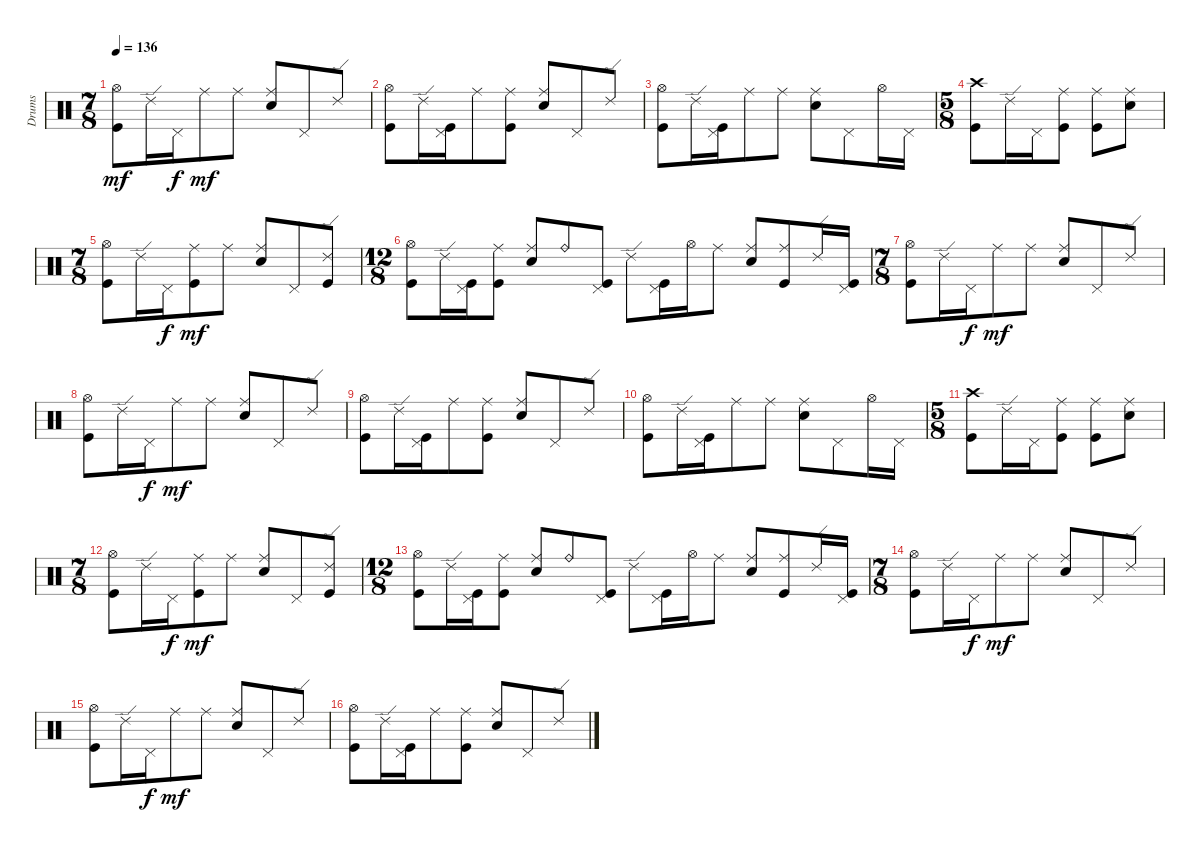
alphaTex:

\track ("Drums" "Drums") {instrument percussion}
\staff {score}
\articulation defaults
\ts (7 8)
\tempo 136
\clef neutral
\ks c
("Hi-Hat (open)" "Kick (hit)").8{dy mf} "Ride (edge) 2".16 "Pedal Hi-Hat (hit)".16{dy f} "Ride (middle)".8{dy mf} "Ride (middle)".8 ("Ride (middle)" "Electric Snare (hit)").8 "Pedal Hi-Hat (hit)".8 "Ride (edge) 2".8 |
("Hi-Hat (open)" "Kick (hit)").8 "Ride (edge) 2".16 ("Pedal Hi-Hat (hit)" "Kick (hit)").16 "Ride (middle)".8 ("Ride (middle)" "Kick (hit)").8 ("Ride (middle)" "Electric Snare (hit)").8 "Pedal Hi-Hat (hit)".8 "Ride (edge) 2".8 |
("Hi-Hat (open)" "Kick (hit)").8 "Ride (edge) 2".16 ("Pedal Hi-Hat (hit)" "Kick (hit)").16 "Ride (middle)".8 "Ride (middle)".8 ("Ride (middle)" "Electric Snare (hit)").8 "Pedal Hi-Hat (hit)".8 "Hi-Hat (open)".16 "Pedal Hi-Hat (hit)".16 |
\ts (5 8)
("Crash high (hit)" "Kick (hit)").8 "Ride (edge) 2".16 "Pedal Hi-Hat (hit)".16 ("Ride (middle)" "Kick (hit)").8 ("Ride (middle)" "Kick (hit)").8 ("Ride (middle)" "Electric Snare (hit)").8 |
\ts (7 8)
("Hi-Hat (open)" "Kick (hit)").8 "Ride (edge) 2".16 "Pedal Hi-Hat (hit)".16{dy f} ("Ride (middle)" "Kick (hit)").8{dy mf} "Ride (middle)".8 ("Ride (middle)" "Electric Snare (hit)").8 "Pedal Hi-Hat (hit)".8 ("Ride (edge) 2" "Kick (hit)").8 |
\ts (12 8)
("Hi-Hat (open)" "Kick (hit)").8 "Ride (edge) 2".16 ("Pedal Hi-Hat (hit)" "Kick (hit)").16 ("Ride (middle)" "Kick (hit)").8 ("Ride (middle)" "Electric Snare (hit)").8 "Ride (bell)".8 ("Pedal Hi-Hat (hit)" "Kick (hit)").8 "Ride (edge) 2".8 ("Pedal Hi-Hat (hit)" "Kick (hit)").16 "Hi-Hat (open)".16 "Ride (middle)".8 ("Ride (middle)" "Electric Snare (hit)").8 ("Ride (middle)" "Kick (hit)").8 "Ride (edge) 2".16 ("Pedal Hi-Hat (hit)" "Kick (hit)").16 |
\ts (7 8)
("Hi-Hat (open)" "Kick (hit)").8 "Ride (edge) 2".16 "Pedal Hi-Hat (hit)".16{dy f} "Ride (middle)".8{dy mf} "Ride (middle)".8 ("Ride (middle)" "Electric Snare (hit)").8 "Pedal Hi-Hat (hit)".8 "Ride (edge) 2".8 |
("Hi-Hat (open)" "Kick (hit)").8 "Ride (edge) 2".16 "Pedal Hi-Hat (hit)".16{dy f} "Ride (middle)".8{dy mf} "Ride (middle)".8 ("Ride (middle)" "Electric Snare (hit)").8 "Pedal Hi-Hat (hit)".8 "Ride (edge) 2".8 |
("Hi-Hat (open)" "Kick (hit)").8 "Ride (edge) 2".16 ("Pedal Hi-Hat (hit)" "Kick (hit)").16 "Ride (middle)".8 ("Ride (middle)" "Kick (hit)").8 ("Ride (middle)" "Electric Snare (hit)").8 "Pedal Hi-Hat (hit)".8 "Ride (edge) 2".8 |
("Hi-Hat (open)" "Kick (hit)").8 "Ride (edge) 2".16 ("Pedal Hi-Hat (hit)" "Kick (hit)").16 "Ride (middle)".8 "Ride (middle)".8 ("Ride (middle)" "Electric Snare (hit)").8 "Pedal Hi-Hat (hit)".8 "Hi-Hat (open)".16 "Pedal Hi-Hat (hit)".16 |
\ts (5 8)
("Crash high (hit)" "Kick (hit)").8 "Ride (edge) 2".16 "Pedal Hi-Hat (hit)".16 ("Ride (middle)" "Kick (hit)").8 ("Ride (middle)" "Kick (hit)").8 ("Ride (middle)" "Electric Snare (hit)").8 |
\ts (7 8)
("Hi-Hat (open)" "Kick (hit)").8 "Ride (edge) 2".16 "Pedal Hi-Hat (hit)".16{dy f} ("Ride (middle)" "Kick (hit)").8{dy mf} "Ride (middle)".8 ("Ride (middle)" "Electric Snare (hit)").8 "Pedal Hi-Hat (hit)".8 ("Ride (edge) 2" "Kick (hit)").8 |
\ts (12 8)
("Hi-Hat (open)" "Kick (hit)").8 "Ride (edge) 2".16 ("Pedal Hi-Hat (hit)" "Kick (hit)").16 ("Ride (middle)" "Kick (hit)").8 ("Ride (middle)" "Electric Snare (hit)").8 "Ride (bell)".8 ("Pedal Hi-Hat (hit)" "Kick (hit)").8 "Ride (edge) 2".8 ("Pedal Hi-Hat (hit)" "Kick (hit)").16 "Hi-Hat (open)".16 "Ride (middle)".8 ("Ride (middle)" "Electric Snare (hit)").8 ("Ride (middle)" "Kick (hit)").8 "Ride (edge) 2".16 ("Pedal Hi-Hat (hit)" "Kick (hit)").16 |
\ts (7 8)
("Hi-Hat (open)" "Kick (hit)").8 "Ride (edge) 2".16 "Pedal Hi-Hat (hit)".16{dy f} "Ride (middle)".8{dy mf} "Ride (middle)".8 ("Ride (middle)" "Electric Snare (hit)").8 "Pedal Hi-Hat (hit)".8 "Ride (edge) 2".8 |
("Hi-Hat (open)" "Kick (hit)").8 "Ride (edge) 2".16 "Pedal Hi-Hat (hit)".16{dy f} "Ride (middle)".8{dy mf} "Ride (middle)".8 ("Ride (middle)" "Electric Snare (hit)").8 "Pedal Hi-Hat (hit)".8 "Ride (edge) 2".8 |
("Hi-Hat (open)" "Kick (hit)").8 "Ride (edge) 2".16 ("Pedal Hi-Hat (hit)" "Kick (hit)").16 "Ride (middle)".8 ("Ride (middle)" "Kick (hit)").8 ("Ride (middle)" "Electric Snare (hit)").8 "Pedal Hi-Hat (hit)".8 "Ride (edge) 2".8
